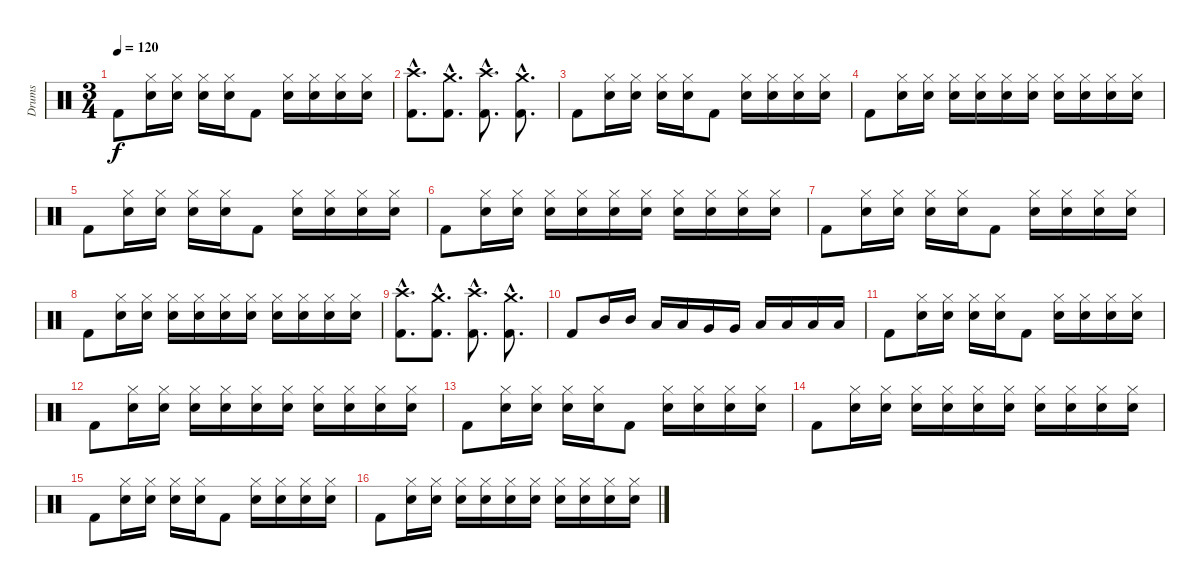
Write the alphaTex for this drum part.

\track ("Drums" "Drums") {instrument percussion}
\staff {score}
\articulation defaults
\ts (3 4)
\tempo 120
\clef neutral
\ks c "Kick (hit) 2".8{dy f}
("Electric Snare (hit)" "Hi-Hat (closed)").16 ("Electric Snare (hit)" "Hi-Hat (closed)").16 ("Electric Snare (hit)" "Hi-Hat (closed)").16 ("Electric Snare (hit)" "Hi-Hat (closed)").16 "Kick (hit) 2".8 ("Electric Snare (hit)" "Hi-Hat (closed)").16 ("Electric Snare (hit)" "Hi-Hat (closed)").16 ("Electric Snare (hit)" "Hi-Hat (closed)").16 ("Electric Snare (hit)" "Hi-Hat (closed)").16 |
("Crash high (hit)"{hac} "Kick (hit) 2"{hac}).8{d} ("Crash medium (hit)"{hac} "Kick (hit) 2"{hac}).8{d} ("Crash high (hit)"{hac} "Kick (hit) 2"{hac}).8{d} ("Crash medium (hit)"{hac} "Kick (hit) 2"{hac}).8{d} |
"Kick (hit) 2".8 ("Electric Snare (hit)" "Hi-Hat (closed)").16 ("Electric Snare (hit)" "Hi-Hat (closed)").16 ("Electric Snare (hit)" "Hi-Hat (closed)").16 ("Electric Snare (hit)" "Hi-Hat (closed)").16 "Kick (hit) 2".8 ("Electric Snare (hit)" "Hi-Hat (closed)").16 ("Electric Snare (hit)" "Hi-Hat (closed)").16 ("Electric Snare (hit)" "Hi-Hat (closed)").16 ("Electric Snare (hit)" "Hi-Hat (closed)").16 |
"Kick (hit) 2".8 ("Electric Snare (hit)" "Hi-Hat (closed)").16 ("Electric Snare (hit)" "Hi-Hat (closed)").16 ("Electric Snare (hit)" "Hi-Hat (closed)").16 ("Electric Snare (hit)" "Hi-Hat (closed)").16 ("Electric Snare (hit)" "Hi-Hat (closed)").16 ("Electric Snare (hit)" "Hi-Hat (closed)").16 ("Electric Snare (hit)" "Hi-Hat (closed)").16 ("Electric Snare (hit)" "Hi-Hat (closed)").16 ("Electric Snare (hit)" "Hi-Hat (closed)").16 ("Electric Snare (hit)" "Hi-Hat (closed)").16 |
"Kick (hit) 2".8 ("Electric Snare (hit)" "Hi-Hat (closed)").16 ("Electric Snare (hit)" "Hi-Hat (closed)").16 ("Electric Snare (hit)" "Hi-Hat (closed)").16 ("Electric Snare (hit)" "Hi-Hat (closed)").16 "Kick (hit) 2".8 ("Electric Snare (hit)" "Hi-Hat (closed)").16 ("Electric Snare (hit)" "Hi-Hat (closed)").16 ("Electric Snare (hit)" "Hi-Hat (closed)").16 ("Electric Snare (hit)" "Hi-Hat (closed)").16 |
"Kick (hit) 2".8 ("Electric Snare (hit)" "Hi-Hat (closed)").16 ("Electric Snare (hit)" "Hi-Hat (closed)").16 ("Electric Snare (hit)" "Hi-Hat (closed)").16 ("Electric Snare (hit)" "Hi-Hat (closed)").16 ("Electric Snare (hit)" "Hi-Hat (closed)").16 ("Electric Snare (hit)" "Hi-Hat (closed)").16 ("Electric Snare (hit)" "Hi-Hat (closed)").16 ("Electric Snare (hit)" "Hi-Hat (closed)").16 ("Electric Snare (hit)" "Hi-Hat (closed)").16 ("Electric Snare (hit)" "Hi-Hat (closed)").16 |
"Kick (hit) 2".8 ("Electric Snare (hit)" "Hi-Hat (closed)").16 ("Electric Snare (hit)" "Hi-Hat (closed)").16 ("Electric Snare (hit)" "Hi-Hat (closed)").16 ("Electric Snare (hit)" "Hi-Hat (closed)").16 "Kick (hit) 2".8 ("Electric Snare (hit)" "Hi-Hat (closed)").16 ("Electric Snare (hit)" "Hi-Hat (closed)").16 ("Electric Snare (hit)" "Hi-Hat (closed)").16 ("Electric Snare (hit)" "Hi-Hat (closed)").16 |
"Kick (hit) 2".8 ("Electric Snare (hit)" "Hi-Hat (closed)").16 ("Electric Snare (hit)" "Hi-Hat (closed)").16 ("Electric Snare (hit)" "Hi-Hat (closed)").16 ("Electric Snare (hit)" "Hi-Hat (closed)").16 ("Electric Snare (hit)" "Hi-Hat (closed)").16 ("Electric Snare (hit)" "Hi-Hat (closed)").16 ("Electric Snare (hit)" "Hi-Hat (closed)").16 ("Electric Snare (hit)" "Hi-Hat (closed)").16 ("Electric Snare (hit)" "Hi-Hat (closed)").16 ("Electric Snare (hit)" "Hi-Hat (closed)").16 |
("Crash high (hit)"{hac} "Kick (hit) 2"{hac}).8{d} ("Crash medium (hit)"{hac} "Kick (hit) 2"{hac}).8{d} ("Crash high (hit)"{hac} "Kick (hit) 2"{hac}).8{d} ("Crash medium (hit)"{hac} "Kick (hit) 2"{hac}).8{d} |
"Kick (hit) 2".8 "Mid Tom (hit)".16 "Mid Tom (hit)".16 "Low Tom (hit)".16 "Low Tom (hit)".16 "Very Low Tom (hit)".16 "Very Low Tom (hit)".16 "Low Floor Tom (hit)".16 "Low Floor Tom (hit)".16 "Low Floor Tom (hit)".16 "Low Floor Tom (hit)".16 |
"Kick (hit) 2".8 ("Electric Snare (hit)" "Hi-Hat (closed)").16 ("Electric Snare (hit)" "Hi-Hat (closed)").16 ("Electric Snare (hit)" "Hi-Hat (closed)").16 ("Electric Snare (hit)" "Hi-Hat (closed)").16 "Kick (hit) 2".8 ("Electric Snare (hit)" "Hi-Hat (closed)").16 ("Electric Snare (hit)" "Hi-Hat (closed)").16 ("Electric Snare (hit)" "Hi-Hat (closed)").16 ("Electric Snare (hit)" "Hi-Hat (closed)").16 |
"Kick (hit) 2".8 ("Electric Snare (hit)" "Hi-Hat (closed)").16 ("Electric Snare (hit)" "Hi-Hat (closed)").16 ("Electric Snare (hit)" "Hi-Hat (closed)").16 ("Electric Snare (hit)" "Hi-Hat (closed)").16 ("Electric Snare (hit)" "Hi-Hat (closed)").16 ("Electric Snare (hit)" "Hi-Hat (closed)").16 ("Electric Snare (hit)" "Hi-Hat (closed)").16 ("Electric Snare (hit)" "Hi-Hat (closed)").16 ("Electric Snare (hit)" "Hi-Hat (closed)").16 ("Electric Snare (hit)" "Hi-Hat (closed)").16 |
"Kick (hit) 2".8 ("Electric Snare (hit)" "Hi-Hat (closed)").16 ("Electric Snare (hit)" "Hi-Hat (closed)").16 ("Electric Snare (hit)" "Hi-Hat (closed)").16 ("Electric Snare (hit)" "Hi-Hat (closed)").16 "Kick (hit) 2".8 ("Electric Snare (hit)" "Hi-Hat (closed)").16 ("Electric Snare (hit)" "Hi-Hat (closed)").16 ("Electric Snare (hit)" "Hi-Hat (closed)").16 ("Electric Snare (hit)" "Hi-Hat (closed)").16 |
"Kick (hit) 2".8 ("Electric Snare (hit)" "Hi-Hat (closed)").16 ("Electric Snare (hit)" "Hi-Hat (closed)").16 ("Electric Snare (hit)" "Hi-Hat (closed)").16 ("Electric Snare (hit)" "Hi-Hat (closed)").16 ("Electric Snare (hit)" "Hi-Hat (closed)").16 ("Electric Snare (hit)" "Hi-Hat (closed)").16 ("Electric Snare (hit)" "Hi-Hat (closed)").16 ("Electric Snare (hit)" "Hi-Hat (closed)").16 ("Electric Snare (hit)" "Hi-Hat (closed)").16 ("Electric Snare (hit)" "Hi-Hat (closed)").16 |
"Kick (hit) 2".8 ("Electric Snare (hit)" "Hi-Hat (closed)").16 ("Electric Snare (hit)" "Hi-Hat (closed)").16 ("Electric Snare (hit)" "Hi-Hat (closed)").16 ("Electric Snare (hit)" "Hi-Hat (closed)").16 "Kick (hit) 2".8 ("Electric Snare (hit)" "Hi-Hat (closed)").16 ("Electric Snare (hit)" "Hi-Hat (closed)").16 ("Electric Snare (hit)" "Hi-Hat (closed)").16 ("Electric Snare (hit)" "Hi-Hat (closed)").16 |
"Kick (hit) 2".8 ("Electric Snare (hit)" "Hi-Hat (closed)").16 ("Electric Snare (hit)" "Hi-Hat (closed)").16 ("Electric Snare (hit)" "Hi-Hat (closed)").16 ("Electric Snare (hit)" "Hi-Hat (closed)").16 ("Electric Snare (hit)" "Hi-Hat (closed)").16 ("Electric Snare (hit)" "Hi-Hat (closed)").16 ("Electric Snare (hit)" "Hi-Hat (closed)").16 ("Electric Snare (hit)" "Hi-Hat (closed)").16 ("Electric Snare (hit)" "Hi-Hat (closed)").16 ("Electric Snare (hit)" "Hi-Hat (closed)").16
